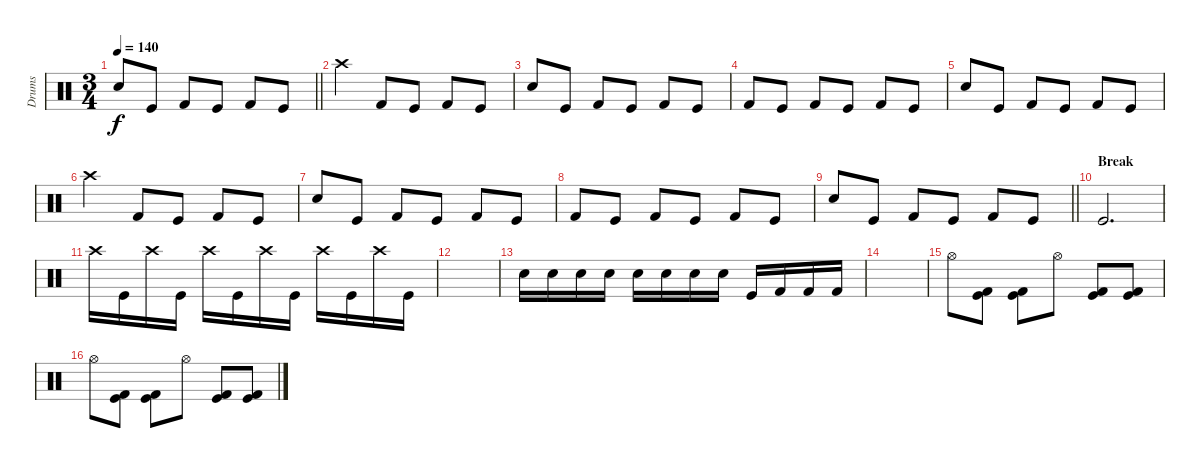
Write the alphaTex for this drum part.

\track ("Drums" "Drums") {instrument percussion}
\staff {score}
\articulation defaults
\ts (3 4)
\tempo 140
\clef neutral
\barLineRight lightlight
\ks c "Snare (hit) 2".8{dy f} "Kick (hit)".8 "Kick (hit) 2".8 "Kick (hit)".8 "Kick (hit) 2".8 "Kick (hit)".8
|
"Crash high (hit)".4 "Kick (hit) 2".8 "Kick (hit)".8 "Kick (hit) 2".8 "Kick (hit)".8 |
"Snare (hit) 2".8 "Kick (hit)".8 "Kick (hit) 2".8 "Kick (hit)".8 "Kick (hit) 2".8 "Kick (hit)".8 |
"Kick (hit) 2".8 "Kick (hit)".8 "Kick (hit) 2".8 "Kick (hit)".8 "Kick (hit) 2".8 "Kick (hit)".8 |
"Snare (hit) 2".8 "Kick (hit)".8 "Kick (hit) 2".8 "Kick (hit)".8 "Kick (hit) 2".8 "Kick (hit)".8 |
"Crash high (hit)".4 "Kick (hit) 2".8 "Kick (hit)".8 "Kick (hit) 2".8 "Kick (hit)".8 |
"Snare (hit) 2".8 "Kick (hit)".8 "Kick (hit) 2".8 "Kick (hit)".8 "Kick (hit) 2".8 "Kick (hit)".8 |
"Kick (hit) 2".8 "Kick (hit)".8 "Kick (hit) 2".8 "Kick (hit)".8 "Kick (hit) 2".8 "Kick (hit)".8 |
\barLineRight lightlight "Snare (hit) 2".8 "Kick (hit)".8 "Kick (hit) 2".8 "Kick (hit)".8 "Kick (hit) 2".8 "Kick (hit)".8
|
\section ("" "Break")
"Kick (hit)".2{d} |
"Crash high (hit)".16 "Kick (hit)".16 "Crash high (hit)".16 "Kick (hit)".16 "Crash high (hit)".16 "Kick (hit)".16 "Crash high (hit)".16 "Kick (hit)".16 "Crash high (hit)".16 "Kick (hit)".16 "Crash high (hit)".16 "Kick (hit)".16 |
|
"Snare (hit) 2".16 "Snare (hit) 2".16 "Snare (hit) 2".16 "Snare (hit) 2".16 "Snare (hit) 2".16 "Snare (hit) 2".16 "Snare (hit) 2".16 "Snare (hit) 2".16 "Kick (hit)".16 "Kick (hit) 2".16 "Kick (hit) 2".16 "Kick (hit) 2".16 |
|
"Hi-Hat (open)".8 ("Kick (hit)" "Kick (hit) 2").8 ("Kick (hit)" "Kick (hit) 2").8 "Hi-Hat (open)".8 ("Kick (hit)" "Kick (hit) 2").8 ("Kick (hit)" "Kick (hit) 2").8 |
"Hi-Hat (open)".8 ("Kick (hit)" "Kick (hit) 2").8 ("Kick (hit)" "Kick (hit) 2").8 "Hi-Hat (open)".8 ("Kick (hit)" "Kick (hit) 2").8 ("Kick (hit)" "Kick (hit) 2").8
